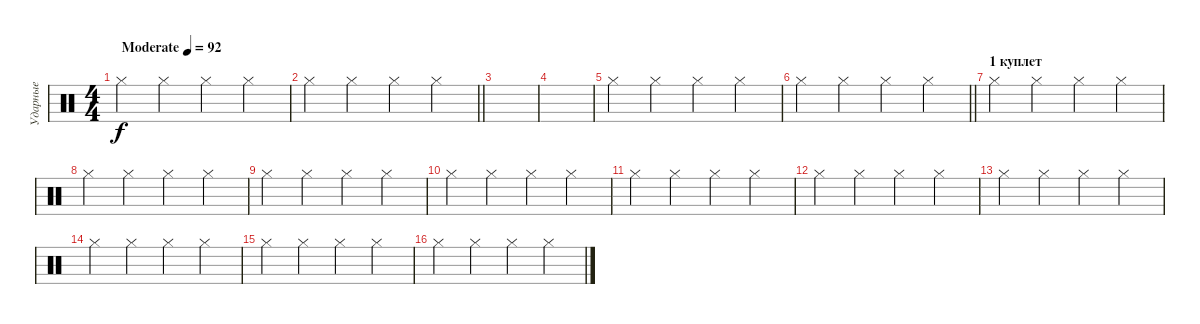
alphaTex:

\track ("Ударные" "Ударные") {instrument percussion}
\staff {score}
\articulation defaults
\ts (4 4)
\tempo (92 "Moderate")
\clef neutral
\ks c "Hi-Hat (closed)".4{dy f} "Hi-Hat (closed)".4 "Hi-Hat (closed)".4 "Hi-Hat (closed)".4
|
\barLineRight lightlight "Hi-Hat (closed)".4 "Hi-Hat (closed)".4 "Hi-Hat (closed)".4 "Hi-Hat (closed)".4
|
|
|
"Hi-Hat (closed)".4 "Hi-Hat (closed)".4 "Hi-Hat (closed)".4 "Hi-Hat (closed)".4 |
\barLineRight lightlight "Hi-Hat (closed)".4 "Hi-Hat (closed)".4 "Hi-Hat (closed)".4 "Hi-Hat (closed)".4
|
\section ("" "1 куплет")
"Hi-Hat (closed)".4 "Hi-Hat (closed)".4 "Hi-Hat (closed)".4 "Hi-Hat (closed)".4 |
"Hi-Hat (closed)".4 "Hi-Hat (closed)".4 "Hi-Hat (closed)".4 "Hi-Hat (closed)".4 |
"Hi-Hat (closed)".4 "Hi-Hat (closed)".4 "Hi-Hat (closed)".4 "Hi-Hat (closed)".4 |
"Hi-Hat (closed)".4 "Hi-Hat (closed)".4 "Hi-Hat (closed)".4 "Hi-Hat (closed)".4 |
"Hi-Hat (closed)".4 "Hi-Hat (closed)".4 "Hi-Hat (closed)".4 "Hi-Hat (closed)".4 |
"Hi-Hat (closed)".4 "Hi-Hat (closed)".4 "Hi-Hat (closed)".4 "Hi-Hat (closed)".4 |
"Hi-Hat (closed)".4 "Hi-Hat (closed)".4 "Hi-Hat (closed)".4 "Hi-Hat (closed)".4 |
"Hi-Hat (closed)".4 "Hi-Hat (closed)".4 "Hi-Hat (closed)".4 "Hi-Hat (closed)".4 |
"Hi-Hat (closed)".4 "Hi-Hat (closed)".4 "Hi-Hat (closed)".4 "Hi-Hat (closed)".4 |
"Hi-Hat (closed)".4 "Hi-Hat (closed)".4 "Hi-Hat (closed)".4 "Hi-Hat (closed)".4
